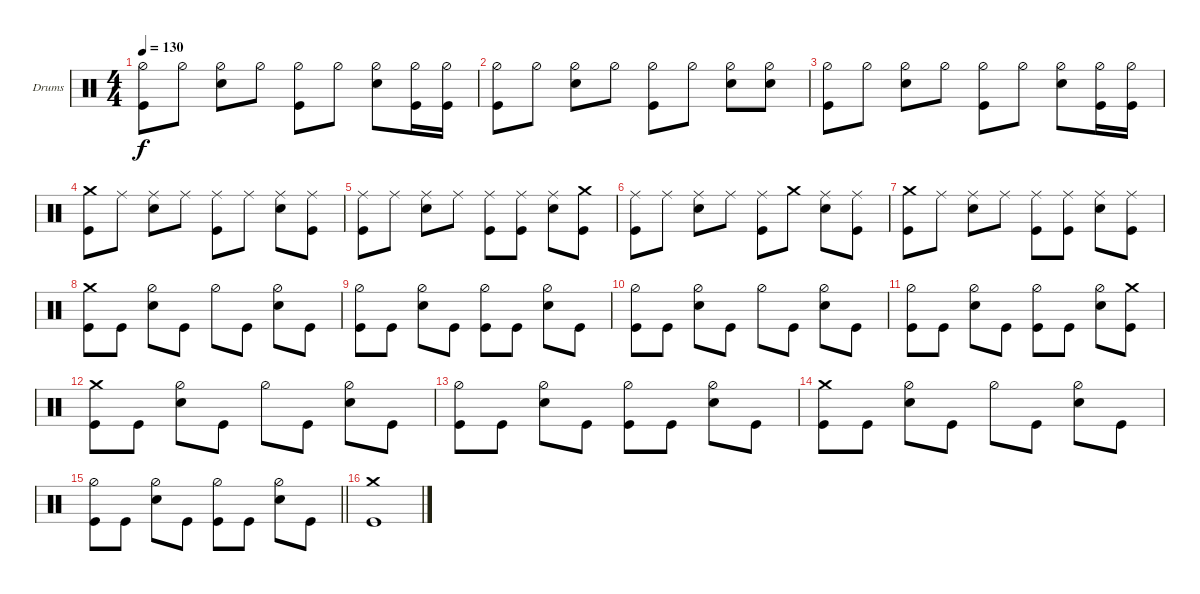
\defaultSystemsLayout 4
\bracketExtendMode groupsimilarinstruments
\firstSystemTrackNameOrientation horizontal
\otherSystemsTrackNameOrientation horizontal
\track ("Drumkit" "Drums") {instrument percussion}
\staff {score}
\articulation defaults
\ts (4 4)
\tempo 130
\clef neutral
\ks aminor
("Kick (hit)" "Hi-Hat (half)").8{dy f} "Hi-Hat (half)".8 ("Snare (hit) 2" "Hi-Hat (half)").8 "Hi-Hat (half)".8 ("Kick (hit)" "Hi-Hat (half)").8 "Hi-Hat (half)".8 ("Snare (hit) 2" "Hi-Hat (half)").8 ("Kick (hit)" "Hi-Hat (half)").16 ("Kick (hit)" "Hi-Hat (half)").16 |
("Kick (hit)" "Hi-Hat (half)").8 "Hi-Hat (half)".8 ("Snare (hit) 2" "Hi-Hat (half)").8 "Hi-Hat (half)".8 ("Kick (hit)" "Hi-Hat (half)").8 "Hi-Hat (half)".8 ("Snare (hit) 2" "Hi-Hat (half)").8 ("Snare (hit) 2" "Hi-Hat (half)").8 |
("Kick (hit)" "Hi-Hat (half)").8 "Hi-Hat (half)".8 ("Snare (hit) 2" "Hi-Hat (half)").8 "Hi-Hat (half)".8 ("Kick (hit)" "Hi-Hat (half)").8 "Hi-Hat (half)".8 ("Snare (hit) 2" "Hi-Hat (half)").8 ("Kick (hit)" "Hi-Hat (half)").16 ("Kick (hit)" "Hi-Hat (half)").16 |
("Kick (hit)" "Crash medium (hit)").8 "Ride (middle)".8 ("Snare (hit) 2" "Ride (middle)").8 "Ride (middle)".8 ("Kick (hit)" "Ride (middle)").8 "Ride (middle)".8 ("Snare (hit) 2" "Ride (middle)").8 ("Kick (hit)" "Ride (middle)").8 |
("Kick (hit)" "Ride (middle)").8 "Ride (middle)".8 ("Snare (hit) 2" "Ride (middle)").8 "Ride (middle)".8 ("Kick (hit)" "Ride (middle)").8 ("Kick (hit)" "Ride (middle)").8 ("Snare (hit) 2" "Ride (middle)").8 ("Kick (hit)" "Crash medium (hit)").8 |
("Kick (hit)" "Ride (middle)").8 "Ride (middle)".8 ("Snare (hit) 2" "Ride (middle)").8 "Ride (middle)".8 ("Kick (hit)" "Ride (middle)").8 "Crash medium (hit)".8 ("Snare (hit) 2" "Ride (middle)").8 ("Kick (hit)" "Ride (middle)").8 |
("Kick (hit)" "Crash medium (hit)").8 "Ride (middle)".8 ("Snare (hit) 2" "Ride (middle)").8 "Ride (middle)".8 ("Kick (hit)" "Ride (middle)").8 ("Kick (hit)" "Ride (middle)").8 ("Snare (hit) 2" "Ride (middle)").8 ("Kick (hit)" "Ride (middle)").8 |
("Kick (hit)" "Crash medium (hit)").8 "Kick (hit)".8 ("Snare (hit) 2" "Hi-Hat (half)").8 "Kick (hit)".8 "Hi-Hat (half)".8 "Kick (hit)".8 ("Snare (hit) 2" "Hi-Hat (half)").8 "Kick (hit)".8 |
("Kick (hit)" "Hi-Hat (half)").8 "Kick (hit)".8 ("Snare (hit) 2" "Hi-Hat (half)").8 "Kick (hit)".8 ("Kick (hit)" "Hi-Hat (half)").8 "Kick (hit)".8 ("Snare (hit) 2" "Hi-Hat (half)").8 "Kick (hit)".8 |
("Kick (hit)" "Hi-Hat (half)").8 "Kick (hit)".8 ("Snare (hit) 2" "Hi-Hat (half)").8 "Kick (hit)".8 "Hi-Hat (half)".8 "Kick (hit)".8 ("Snare (hit) 2" "Hi-Hat (half)").8 "Kick (hit)".8 |
("Kick (hit)" "Hi-Hat (half)").8 "Kick (hit)".8 ("Snare (hit) 2" "Hi-Hat (half)").8 "Kick (hit)".8 ("Kick (hit)" "Hi-Hat (half)").8 "Kick (hit)".8 ("Snare (hit) 2" "Hi-Hat (half)").8 ("Kick (hit)" "Crash medium (hit)").8 |
("Kick (hit)" "Crash medium (hit)").8 "Kick (hit)".8 ("Snare (hit) 2" "Hi-Hat (half)").8 "Kick (hit)".8 "Hi-Hat (half)".8 "Kick (hit)".8 ("Snare (hit) 2" "Hi-Hat (half)").8 "Kick (hit)".8 |
("Kick (hit)" "Hi-Hat (half)").8 "Kick (hit)".8 ("Snare (hit) 2" "Hi-Hat (half)").8 "Kick (hit)".8 ("Kick (hit)" "Hi-Hat (half)").8 "Kick (hit)".8 ("Snare (hit) 2" "Hi-Hat (half)").8 "Kick (hit)".8 |
("Kick (hit)" "Crash medium (hit)").8 "Kick (hit)".8 ("Snare (hit) 2" "Hi-Hat (half)").8 "Kick (hit)".8 "Hi-Hat (half)".8 "Kick (hit)".8 ("Snare (hit) 2" "Hi-Hat (half)").8 "Kick (hit)".8 |
\barLineRight lightlight
("Kick (hit)" "Hi-Hat (half)").8 "Kick (hit)".8 ("Snare (hit) 2" "Hi-Hat (half)").8 "Kick (hit)".8 ("Kick (hit)" "Hi-Hat (half)").8 "Kick (hit)".8 ("Snare (hit) 2" "Hi-Hat (half)").8 "Kick (hit)".8 |
("Kick (hit)" "Crash medium (hit)").1
